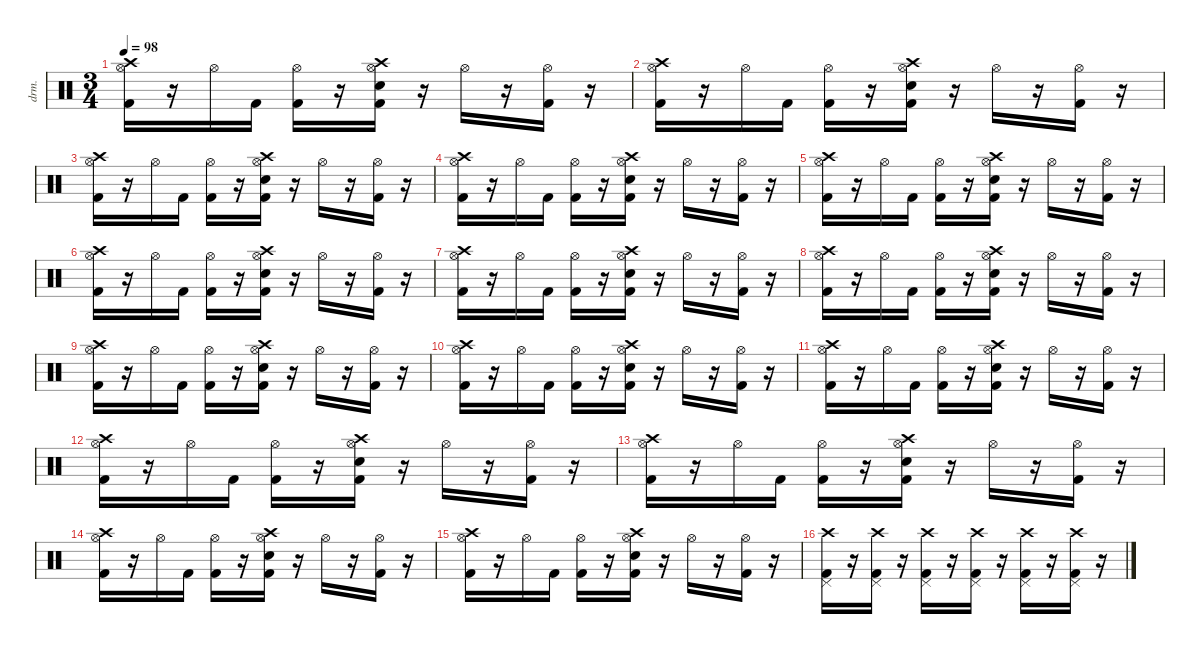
\defaultSystemsLayout 4
\hideDynamics
\bracketExtendMode nobrackets
\otherSystemsTrackNameOrientation horizontal
\track ("Ударные" "drm.") {instrument percussion}
\staff {score}
\articulation defaults
\ts (3 4)
\tempo 98
\clef neutral
\ks c
("Crash high (hit)" "Kick (hit) 2" "Hi-Hat (open)").16{dy fff beam Down} r.16{beam Down} "Hi-Hat (open)".16{dy f beam Down} "Kick (hit) 2".16{dy mf beam Down} ("Kick (hit) 2" "Hi-Hat (open)").16{dy f beam Down} r.16{beam Down} ("Crash high (hit)" "Snare (hit) 2" "Kick (hit) 2" "Hi-Hat (open)").16{beam Down} r.16{beam Down} "Hi-Hat (open)".16{beam Down} r.16{beam Down} ("Kick (hit) 2" "Hi-Hat (open)").16{beam Down} r.16{beam Down} |
("Crash high (hit)" "Kick (hit) 2" "Hi-Hat (open)").16{dy fff beam Down} r.16{beam Down} "Hi-Hat (open)".16{dy f beam Down} "Kick (hit) 2".16{dy mf beam Down} ("Kick (hit) 2" "Hi-Hat (open)").16{dy f beam Down} r.16{beam Down} ("Crash high (hit)" "Snare (hit) 2" "Kick (hit) 2" "Hi-Hat (open)").16{beam Down} r.16{beam Down} "Hi-Hat (open)".16{beam Down} r.16{beam Down} ("Kick (hit) 2" "Hi-Hat (open)").16{beam Down} r.16{beam Down} |
("Crash high (hit)" "Kick (hit) 2" "Hi-Hat (open)").16{dy fff beam Down} r.16{beam Down} "Hi-Hat (open)".16{dy f beam Down} "Kick (hit) 2".16{beam Down} ("Kick (hit) 2" "Hi-Hat (open)").16{beam Down} r.16{beam Down} ("Crash high (hit)" "Snare (hit) 2" "Kick (hit) 2" "Hi-Hat (open)").16{beam Down} r.16{beam Down} "Hi-Hat (open)".16{beam Down} r.16{beam Down} ("Kick (hit) 2" "Hi-Hat (open)").16{beam Down} r.16{beam Down} |
("Crash high (hit)" "Kick (hit) 2" "Hi-Hat (open)").16{dy fff beam Down} r.16{beam Down} "Hi-Hat (open)".16{dy f beam Down} "Kick (hit) 2".16{beam Down} ("Kick (hit) 2" "Hi-Hat (open)").16{beam Down} r.16{beam Down} ("Crash high (hit)" "Snare (hit) 2" "Kick (hit) 2" "Hi-Hat (open)").16{beam Down} r.16{beam Down} "Hi-Hat (open)".16{beam Down} r.16{beam Down} ("Kick (hit) 2" "Hi-Hat (open)").16{beam Down} r.16{beam Down} |
("Crash high (hit)" "Kick (hit) 2" "Hi-Hat (open)").16{dy fff beam Down} r.16{beam Down} "Hi-Hat (open)".16{dy f beam Down} "Kick (hit) 2".16{dy mf beam Down} ("Kick (hit) 2" "Hi-Hat (open)").16{dy f beam Down} r.16{beam Down} ("Crash high (hit)" "Snare (hit) 2" "Kick (hit) 2" "Hi-Hat (open)").16{beam Down} r.16{beam Down} "Hi-Hat (open)".16{beam Down} r.16{beam Down} ("Kick (hit) 2" "Hi-Hat (open)").16{beam Down} r.16{beam Down} |
("Crash high (hit)" "Kick (hit) 2" "Hi-Hat (open)").16{dy fff beam Down} r.16{beam Down} "Hi-Hat (open)".16{dy f beam Down} "Kick (hit) 2".16{dy mf beam Down} ("Kick (hit) 2" "Hi-Hat (open)").16{dy f beam Down} r.16{beam Down} ("Crash high (hit)" "Snare (hit) 2" "Kick (hit) 2" "Hi-Hat (open)").16{beam Down} r.16{beam Down} "Hi-Hat (open)".16{beam Down} r.16{beam Down} ("Kick (hit) 2" "Hi-Hat (open)").16{beam Down} r.16{beam Down} |
("Crash high (hit)" "Kick (hit) 2" "Hi-Hat (open)").16{dy fff beam Down} r.16{beam Down} "Hi-Hat (open)".16{dy f beam Down} "Kick (hit) 2".16{beam Down} ("Kick (hit) 2" "Hi-Hat (open)").16{beam Down} r.16{beam Down} ("Crash high (hit)" "Snare (hit) 2" "Kick (hit) 2" "Hi-Hat (open)").16{beam Down} r.16{beam Down} "Hi-Hat (open)".16{beam Down} r.16{beam Down} ("Kick (hit) 2" "Hi-Hat (open)").16{beam Down} r.16{beam Down} |
("Crash high (hit)" "Kick (hit) 2" "Hi-Hat (open)").16{dy fff beam Down} r.16{beam Down} "Hi-Hat (open)".16{dy f beam Down} "Kick (hit) 2".16{beam Down} ("Kick (hit) 2" "Hi-Hat (open)").16{beam Down} r.16{beam Down} ("Crash high (hit)" "Snare (hit) 2" "Kick (hit) 2" "Hi-Hat (open)").16{beam Down} r.16{beam Down} "Hi-Hat (open)".16{beam Down} r.16{beam Down} ("Kick (hit) 2" "Hi-Hat (open)").16{beam Down} r.16{beam Down} |
("Crash high (hit)" "Kick (hit) 2" "Hi-Hat (open)").16{dy fff beam Down} r.16{beam Down} "Hi-Hat (open)".16{dy f beam Down} "Kick (hit) 2".16{dy mf beam Down} ("Kick (hit) 2" "Hi-Hat (open)").16{dy f beam Down} r.16{beam Down} ("Crash high (hit)" "Snare (hit) 2" "Kick (hit) 2" "Hi-Hat (open)").16{beam Down} r.16{beam Down} "Hi-Hat (open)".16{beam Down} r.16{beam Down} ("Kick (hit) 2" "Hi-Hat (open)").16{beam Down} r.16{beam Down} |
("Crash high (hit)" "Kick (hit) 2" "Hi-Hat (open)").16{dy fff beam Down} r.16{beam Down} "Hi-Hat (open)".16{dy f beam Down} "Kick (hit) 2".16{dy mf beam Down} ("Kick (hit) 2" "Hi-Hat (open)").16{dy f beam Down} r.16{beam Down} ("Crash high (hit)" "Snare (hit) 2" "Kick (hit) 2" "Hi-Hat (open)").16{beam Down} r.16{beam Down} "Hi-Hat (open)".16{beam Down} r.16{beam Down} ("Kick (hit) 2" "Hi-Hat (open)").16{beam Down} r.16{beam Down} |
("Crash high (hit)" "Kick (hit) 2" "Hi-Hat (open)").16{dy fff beam Down} r.16{beam Down} "Hi-Hat (open)".16{dy f beam Down} "Kick (hit) 2".16{beam Down} ("Kick (hit) 2" "Hi-Hat (open)").16{beam Down} r.16{beam Down} ("Crash high (hit)" "Snare (hit) 2" "Kick (hit) 2" "Hi-Hat (open)").16{beam Down} r.16{beam Down} "Hi-Hat (open)".16{beam Down} r.16{beam Down} ("Kick (hit) 2" "Hi-Hat (open)").16{beam Down} r.16{beam Down} |
("Crash high (hit)" "Kick (hit) 2" "Hi-Hat (open)").16{dy fff beam Down} r.16{beam Down} "Hi-Hat (open)".16{dy f beam Down} "Kick (hit) 2".16{beam Down} ("Kick (hit) 2" "Hi-Hat (open)").16{beam Down} r.16{beam Down} ("Crash high (hit)" "Snare (hit) 2" "Kick (hit) 2" "Hi-Hat (open)").16{beam Down} r.16{beam Down} "Hi-Hat (open)".16{beam Down} r.16{beam Down} ("Kick (hit) 2" "Hi-Hat (open)").16{beam Down} r.16{beam Down} |
("Crash high (hit)" "Kick (hit) 2" "Hi-Hat (open)").16{dy fff beam Down} r.16{beam Down} "Hi-Hat (open)".16{dy f beam Down} "Kick (hit) 2".16{dy mf beam Down} ("Kick (hit) 2" "Hi-Hat (open)").16{dy f beam Down} r.16{beam Down} ("Crash high (hit)" "Snare (hit) 2" "Kick (hit) 2" "Hi-Hat (open)").16{beam Down} r.16{beam Down} "Hi-Hat (open)".16{beam Down} r.16{beam Down} ("Kick (hit) 2" "Hi-Hat (open)").16{beam Down} r.16{beam Down} |
("Crash high (hit)" "Kick (hit) 2" "Hi-Hat (open)").16{dy fff beam Down} r.16{beam Down} "Hi-Hat (open)".16{dy f beam Down} "Kick (hit) 2".16{dy mf beam Down} ("Kick (hit) 2" "Hi-Hat (open)").16{dy f beam Down} r.16{beam Down} ("Crash high (hit)" "Snare (hit) 2" "Kick (hit) 2" "Hi-Hat (open)").16{beam Down} r.16{beam Down} "Hi-Hat (open)".16{beam Down} r.16{beam Down} ("Kick (hit) 2" "Hi-Hat (open)").16{beam Down} r.16{beam Down} |
("Crash high (hit)" "Kick (hit) 2" "Hi-Hat (open)").16{dy fff beam Down} r.16{beam Down} "Hi-Hat (open)".16{dy f beam Down} "Kick (hit) 2".16{beam Down} ("Kick (hit) 2" "Hi-Hat (open)").16{beam Down} r.16{beam Down} ("Crash high (hit)" "Snare (hit) 2" "Kick (hit) 2" "Hi-Hat (open)").16{beam Down} r.16{beam Down} "Hi-Hat (open)".16{beam Down} r.16{beam Down} ("Kick (hit) 2" "Hi-Hat (open)").16{beam Down} r.16{beam Down} |
("Crash high (hit)" "Kick (hit) 2" "Pedal Hi-Hat (hit)").16{dy fff beam Down} r.16{beam Down} ("Crash high (hit)" "Kick (hit) 2" "Pedal Hi-Hat (hit)").16{dy mf beam Down} r.16{beam Down} ("Crash high (hit)" "Kick (hit) 2" "Pedal Hi-Hat (hit)").16{beam Down} r.16{beam Down} ("Crash high (hit)" "Kick (hit) 2" "Pedal Hi-Hat (hit)").16{beam Down} r.16{beam Down} ("Crash high (hit)" "Kick (hit) 2" "Pedal Hi-Hat (hit)").16{beam Down} r.16{beam Down} ("Crash high (hit)" "Kick (hit) 2" "Pedal Hi-Hat (hit)").16{beam Down} r.16{beam Down}
